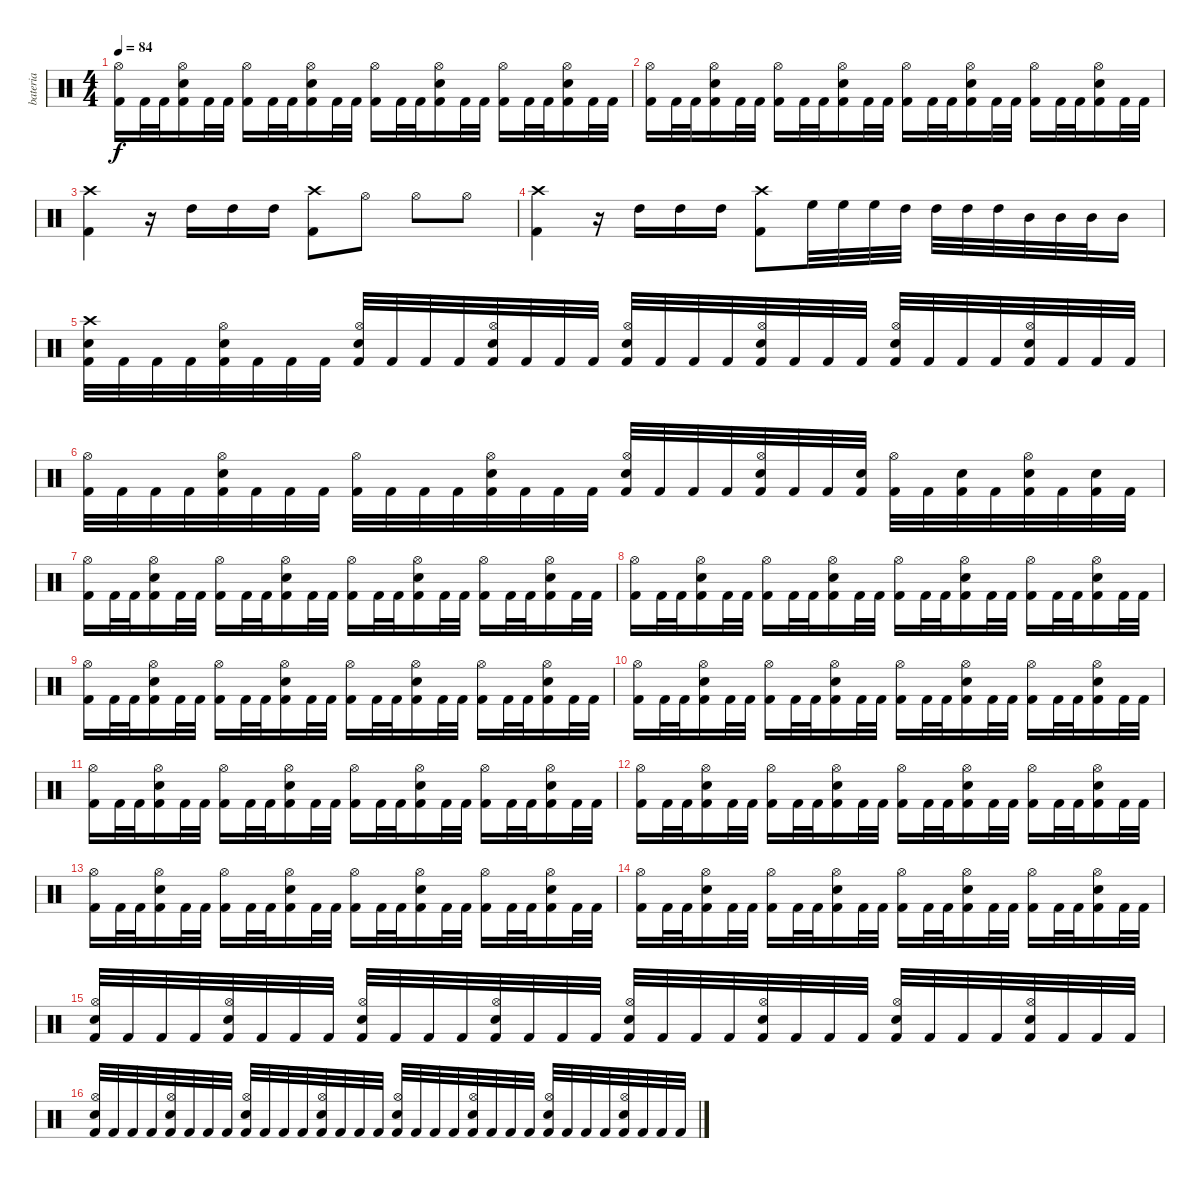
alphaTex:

\track ("bateria" "bateria") {instrument percussion}
\staff {score}
\articulation defaults
\ts (4 4)
\tempo 84
\clef neutral
\ks c
("Kick (hit) 2" "Hi-Hat (open)").16{dy f} "Kick (hit) 2".32 "Kick (hit) 2".32 ("Kick (hit) 2" "Electric Snare (hit)" "Hi-Hat (open)").16 "Kick (hit) 2".32 "Kick (hit) 2".32 ("Kick (hit) 2" "Hi-Hat (open)").16 "Kick (hit) 2".32 "Kick (hit) 2".32 ("Kick (hit) 2" "Electric Snare (hit)" "Hi-Hat (open)").16 "Kick (hit) 2".32 "Kick (hit) 2".32 ("Kick (hit) 2" "Hi-Hat (open)").16 "Kick (hit) 2".32 "Kick (hit) 2".32 ("Kick (hit) 2" "Electric Snare (hit)" "Hi-Hat (open)").16 "Kick (hit) 2".32 "Kick (hit) 2".32 ("Kick (hit) 2" "Hi-Hat (open)").16 "Kick (hit) 2".32 "Kick (hit) 2".32 ("Kick (hit) 2" "Electric Snare (hit)" "Hi-Hat (open)").16 "Kick (hit) 2".32 "Kick (hit) 2".32 |
("Kick (hit) 2" "Hi-Hat (open)").16 "Kick (hit) 2".32 "Kick (hit) 2".32 ("Kick (hit) 2" "Electric Snare (hit)" "Hi-Hat (open)").16 "Kick (hit) 2".32 "Kick (hit) 2".32 ("Kick (hit) 2" "Hi-Hat (open)").16 "Kick (hit) 2".32 "Kick (hit) 2".32 ("Kick (hit) 2" "Electric Snare (hit)" "Hi-Hat (open)").16 "Kick (hit) 2".32 "Kick (hit) 2".32 ("Kick (hit) 2" "Hi-Hat (open)").16 "Kick (hit) 2".32 "Kick (hit) 2".32 ("Kick (hit) 2" "Electric Snare (hit)" "Hi-Hat (open)").16 "Kick (hit) 2".32 "Kick (hit) 2".32 ("Kick (hit) 2" "Hi-Hat (open)").16 "Kick (hit) 2".32 "Kick (hit) 2".32 ("Kick (hit) 2" "Electric Snare (hit)" "Hi-Hat (open)").16 "Kick (hit) 2".32 "Kick (hit) 2".32 |
("Kick (hit) 2" "Crash high (hit)").4 r.16 "High Tom (hit)".16 "High Tom (hit)".16 "High Tom (hit)".16 ("Kick (hit) 2" "Crash high (hit)").8 "Hi-Hat (open)".8 "Hi-Hat (open)".8 "Hi-Hat (open)".8 |
("Kick (hit) 2" "Crash high (hit)").4 r.16 "High Tom (hit)".16 "High Tom (hit)".16 "High Tom (hit)".16 ("Kick (hit) 2" "Crash high (hit)").8 "High Floor Tom (hit)".32 "High Floor Tom (hit)".32 "High Floor Tom (hit)".32 "High Tom (hit)".32 "High Tom (hit)".32 "High Tom (hit)".32 "High Tom (hit)".32 "Mid Tom (hit)".32 "Mid Tom (hit)".32 "Mid Tom (hit)".32 "Mid Tom (hit)".16 |
("Kick (hit) 2" "Electric Snare (hit)" "Crash high (hit)").32 "Kick (hit) 2".32 "Kick (hit) 2".32 "Kick (hit) 2".32 ("Kick (hit) 2" "Electric Snare (hit)" "Hi-Hat (open)").32 "Kick (hit) 2".32 "Kick (hit) 2".32 "Kick (hit) 2".32 ("Kick (hit) 2" "Electric Snare (hit)" "Hi-Hat (open)").32 "Kick (hit) 2".32 "Kick (hit) 2".32 "Kick (hit) 2".32 ("Kick (hit) 2" "Electric Snare (hit)" "Hi-Hat (open)").32 "Kick (hit) 2".32 "Kick (hit) 2".32 "Kick (hit) 2".32 ("Kick (hit) 2" "Electric Snare (hit)" "Hi-Hat (open)").32 "Kick (hit) 2".32 "Kick (hit) 2".32 "Kick (hit) 2".32 ("Kick (hit) 2" "Electric Snare (hit)" "Hi-Hat (open)").32 "Kick (hit) 2".32 "Kick (hit) 2".32 "Kick (hit) 2".32 ("Kick (hit) 2" "Electric Snare (hit)" "Hi-Hat (open)").32 "Kick (hit) 2".32 "Kick (hit) 2".32 "Kick (hit) 2".32 ("Kick (hit) 2" "Electric Snare (hit)" "Hi-Hat (open)").32 "Kick (hit) 2".32 "Kick (hit) 2".32 "Kick (hit) 2".32 |
("Kick (hit) 2" "Hi-Hat (open)").32 "Kick (hit) 2".32 "Kick (hit) 2".32 "Kick (hit) 2".32 ("Kick (hit) 2" "Electric Snare (hit)" "Hi-Hat (open)").32 "Kick (hit) 2".32 "Kick (hit) 2".32 "Kick (hit) 2".32 ("Kick (hit) 2" "Hi-Hat (open)").32 "Kick (hit) 2".32 "Kick (hit) 2".32 "Kick (hit) 2".32 ("Kick (hit) 2" "Electric Snare (hit)" "Hi-Hat (open)").32 "Kick (hit) 2".32 "Kick (hit) 2".32 "Kick (hit) 2".32 ("Kick (hit) 2" "Electric Snare (hit)" "Hi-Hat (open)").32 "Kick (hit) 2".32 "Kick (hit) 2".32 "Kick (hit) 2".32 ("Kick (hit) 2" "Electric Snare (hit)" "Hi-Hat (open)").32 "Kick (hit) 2".32 "Kick (hit) 2".32 ("Kick (hit) 2" "Electric Snare (hit)").32 ("Kick (hit) 2" "Hi-Hat (open)").32 "Kick (hit) 2".32 ("Kick (hit) 2" "Electric Snare (hit)").32 "Kick (hit) 2".32 ("Kick (hit) 2" "Electric Snare (hit)" "Hi-Hat (open)").32 "Kick (hit) 2".32 ("Kick (hit) 2" "Electric Snare (hit)").32 "Kick (hit) 2".32 |
("Kick (hit) 2" "Hi-Hat (open)").16 "Kick (hit) 2".32 "Kick (hit) 2".32 ("Kick (hit) 2" "Electric Snare (hit)" "Hi-Hat (open)").16 "Kick (hit) 2".32 "Kick (hit) 2".32 ("Kick (hit) 2" "Hi-Hat (open)").16 "Kick (hit) 2".32 "Kick (hit) 2".32 ("Kick (hit) 2" "Electric Snare (hit)" "Hi-Hat (open)").16 "Kick (hit) 2".32 "Kick (hit) 2".32 ("Kick (hit) 2" "Hi-Hat (open)").16 "Kick (hit) 2".32 "Kick (hit) 2".32 ("Kick (hit) 2" "Electric Snare (hit)" "Hi-Hat (open)").16 "Kick (hit) 2".32 "Kick (hit) 2".32 ("Kick (hit) 2" "Hi-Hat (open)").16 "Kick (hit) 2".32 "Kick (hit) 2".32 ("Kick (hit) 2" "Electric Snare (hit)" "Hi-Hat (open)").16 "Kick (hit) 2".32 "Kick (hit) 2".32 |
("Kick (hit) 2" "Hi-Hat (open)").16 "Kick (hit) 2".32 "Kick (hit) 2".32 ("Kick (hit) 2" "Electric Snare (hit)" "Hi-Hat (open)").16 "Kick (hit) 2".32 "Kick (hit) 2".32 ("Kick (hit) 2" "Hi-Hat (open)").16 "Kick (hit) 2".32 "Kick (hit) 2".32 ("Kick (hit) 2" "Electric Snare (hit)" "Hi-Hat (open)").16 "Kick (hit) 2".32 "Kick (hit) 2".32 ("Kick (hit) 2" "Hi-Hat (open)").16 "Kick (hit) 2".32 "Kick (hit) 2".32 ("Kick (hit) 2" "Electric Snare (hit)" "Hi-Hat (open)").16 "Kick (hit) 2".32 "Kick (hit) 2".32 ("Kick (hit) 2" "Hi-Hat (open)").16 "Kick (hit) 2".32 "Kick (hit) 2".32 ("Kick (hit) 2" "Electric Snare (hit)" "Hi-Hat (open)").16 "Kick (hit) 2".32 "Kick (hit) 2".32 |
("Kick (hit) 2" "Hi-Hat (open)").16 "Kick (hit) 2".32 "Kick (hit) 2".32 ("Kick (hit) 2" "Electric Snare (hit)" "Hi-Hat (open)").16 "Kick (hit) 2".32 "Kick (hit) 2".32 ("Kick (hit) 2" "Hi-Hat (open)").16 "Kick (hit) 2".32 "Kick (hit) 2".32 ("Kick (hit) 2" "Electric Snare (hit)" "Hi-Hat (open)").16 "Kick (hit) 2".32 "Kick (hit) 2".32 ("Kick (hit) 2" "Hi-Hat (open)").16 "Kick (hit) 2".32 "Kick (hit) 2".32 ("Kick (hit) 2" "Electric Snare (hit)" "Hi-Hat (open)").16 "Kick (hit) 2".32 "Kick (hit) 2".32 ("Kick (hit) 2" "Hi-Hat (open)").16 "Kick (hit) 2".32 "Kick (hit) 2".32 ("Kick (hit) 2" "Electric Snare (hit)" "Hi-Hat (open)").16 "Kick (hit) 2".32 "Kick (hit) 2".32 |
("Kick (hit) 2" "Hi-Hat (open)").16 "Kick (hit) 2".32 "Kick (hit) 2".32 ("Kick (hit) 2" "Electric Snare (hit)" "Hi-Hat (open)").16 "Kick (hit) 2".32 "Kick (hit) 2".32 ("Kick (hit) 2" "Hi-Hat (open)").16 "Kick (hit) 2".32 "Kick (hit) 2".32 ("Kick (hit) 2" "Electric Snare (hit)" "Hi-Hat (open)").16 "Kick (hit) 2".32 "Kick (hit) 2".32 ("Kick (hit) 2" "Hi-Hat (open)").16 "Kick (hit) 2".32 "Kick (hit) 2".32 ("Kick (hit) 2" "Electric Snare (hit)" "Hi-Hat (open)").16 "Kick (hit) 2".32 "Kick (hit) 2".32 ("Kick (hit) 2" "Hi-Hat (open)").16 "Kick (hit) 2".32 "Kick (hit) 2".32 ("Kick (hit) 2" "Electric Snare (hit)" "Hi-Hat (open)").16 "Kick (hit) 2".32 "Kick (hit) 2".32 |
("Kick (hit) 2" "Hi-Hat (open)").16 "Kick (hit) 2".32 "Kick (hit) 2".32 ("Kick (hit) 2" "Electric Snare (hit)" "Hi-Hat (open)").16 "Kick (hit) 2".32 "Kick (hit) 2".32 ("Kick (hit) 2" "Hi-Hat (open)").16 "Kick (hit) 2".32 "Kick (hit) 2".32 ("Kick (hit) 2" "Electric Snare (hit)" "Hi-Hat (open)").16 "Kick (hit) 2".32 "Kick (hit) 2".32 ("Kick (hit) 2" "Hi-Hat (open)").16 "Kick (hit) 2".32 "Kick (hit) 2".32 ("Kick (hit) 2" "Electric Snare (hit)" "Hi-Hat (open)").16 "Kick (hit) 2".32 "Kick (hit) 2".32 ("Kick (hit) 2" "Hi-Hat (open)").16 "Kick (hit) 2".32 "Kick (hit) 2".32 ("Kick (hit) 2" "Electric Snare (hit)" "Hi-Hat (open)").16 "Kick (hit) 2".32 "Kick (hit) 2".32 |
("Kick (hit) 2" "Hi-Hat (open)").16 "Kick (hit) 2".32 "Kick (hit) 2".32 ("Kick (hit) 2" "Electric Snare (hit)" "Hi-Hat (open)").16 "Kick (hit) 2".32 "Kick (hit) 2".32 ("Kick (hit) 2" "Hi-Hat (open)").16 "Kick (hit) 2".32 "Kick (hit) 2".32 ("Kick (hit) 2" "Electric Snare (hit)" "Hi-Hat (open)").16 "Kick (hit) 2".32 "Kick (hit) 2".32 ("Kick (hit) 2" "Hi-Hat (open)").16 "Kick (hit) 2".32 "Kick (hit) 2".32 ("Kick (hit) 2" "Electric Snare (hit)" "Hi-Hat (open)").16 "Kick (hit) 2".32 "Kick (hit) 2".32 ("Kick (hit) 2" "Hi-Hat (open)").16 "Kick (hit) 2".32 "Kick (hit) 2".32 ("Kick (hit) 2" "Electric Snare (hit)" "Hi-Hat (open)").16 "Kick (hit) 2".32 "Kick (hit) 2".32 |
("Kick (hit) 2" "Hi-Hat (open)").16 "Kick (hit) 2".32 "Kick (hit) 2".32 ("Kick (hit) 2" "Electric Snare (hit)" "Hi-Hat (open)").16 "Kick (hit) 2".32 "Kick (hit) 2".32 ("Kick (hit) 2" "Hi-Hat (open)").16 "Kick (hit) 2".32 "Kick (hit) 2".32 ("Kick (hit) 2" "Electric Snare (hit)" "Hi-Hat (open)").16 "Kick (hit) 2".32 "Kick (hit) 2".32 ("Kick (hit) 2" "Hi-Hat (open)").16 "Kick (hit) 2".32 "Kick (hit) 2".32 ("Kick (hit) 2" "Electric Snare (hit)" "Hi-Hat (open)").16 "Kick (hit) 2".32 "Kick (hit) 2".32 ("Kick (hit) 2" "Hi-Hat (open)").16 "Kick (hit) 2".32 "Kick (hit) 2".32 ("Kick (hit) 2" "Electric Snare (hit)" "Hi-Hat (open)").16 "Kick (hit) 2".32 "Kick (hit) 2".32 |
("Kick (hit) 2" "Hi-Hat (open)").16 "Kick (hit) 2".32 "Kick (hit) 2".32 ("Kick (hit) 2" "Electric Snare (hit)" "Hi-Hat (open)").16 "Kick (hit) 2".32 "Kick (hit) 2".32 ("Kick (hit) 2" "Hi-Hat (open)").16 "Kick (hit) 2".32 "Kick (hit) 2".32 ("Kick (hit) 2" "Electric Snare (hit)" "Hi-Hat (open)").16 "Kick (hit) 2".32 "Kick (hit) 2".32 ("Kick (hit) 2" "Hi-Hat (open)").16 "Kick (hit) 2".32 "Kick (hit) 2".32 ("Kick (hit) 2" "Electric Snare (hit)" "Hi-Hat (open)").16 "Kick (hit) 2".32 "Kick (hit) 2".32 ("Kick (hit) 2" "Hi-Hat (open)").16 "Kick (hit) 2".32 "Kick (hit) 2".32 ("Kick (hit) 2" "Electric Snare (hit)" "Hi-Hat (open)").16 "Kick (hit) 2".32 "Kick (hit) 2".32 |
("Kick (hit) 2" "Electric Snare (hit)" "Hi-Hat (open)").32 "Kick (hit) 2".32 "Kick (hit) 2".32 "Kick (hit) 2".32 ("Kick (hit) 2" "Electric Snare (hit)" "Hi-Hat (open)").32 "Kick (hit) 2".32 "Kick (hit) 2".32 "Kick (hit) 2".32 ("Kick (hit) 2" "Electric Snare (hit)" "Hi-Hat (open)").32 "Kick (hit) 2".32 "Kick (hit) 2".32 "Kick (hit) 2".32 ("Kick (hit) 2" "Electric Snare (hit)" "Hi-Hat (open)").32 "Kick (hit) 2".32 "Kick (hit) 2".32 "Kick (hit) 2".32 ("Kick (hit) 2" "Electric Snare (hit)" "Hi-Hat (open)").32 "Kick (hit) 2".32 "Kick (hit) 2".32 "Kick (hit) 2".32 ("Kick (hit) 2" "Electric Snare (hit)" "Hi-Hat (open)").32 "Kick (hit) 2".32 "Kick (hit) 2".32 "Kick (hit) 2".32 ("Kick (hit) 2" "Electric Snare (hit)" "Hi-Hat (open)").32 "Kick (hit) 2".32 "Kick (hit) 2".32 "Kick (hit) 2".32 ("Kick (hit) 2" "Electric Snare (hit)" "Hi-Hat (open)").32 "Kick (hit) 2".32 "Kick (hit) 2".32 "Kick (hit) 2".32 |
("Kick (hit) 2" "Electric Snare (hit)" "Hi-Hat (open)").32 "Kick (hit) 2".32 "Kick (hit) 2".32 "Kick (hit) 2".32 ("Kick (hit) 2" "Electric Snare (hit)" "Hi-Hat (open)").32 "Kick (hit) 2".32 "Kick (hit) 2".32 "Kick (hit) 2".32 ("Kick (hit) 2" "Electric Snare (hit)" "Hi-Hat (open)").32 "Kick (hit) 2".32 "Kick (hit) 2".32 "Kick (hit) 2".32 ("Kick (hit) 2" "Electric Snare (hit)" "Hi-Hat (open)").32 "Kick (hit) 2".32 "Kick (hit) 2".32 "Kick (hit) 2".32 ("Kick (hit) 2" "Electric Snare (hit)" "Hi-Hat (open)").32 "Kick (hit) 2".32 "Kick (hit) 2".32 "Kick (hit) 2".32 ("Kick (hit) 2" "Electric Snare (hit)" "Hi-Hat (open)").32 "Kick (hit) 2".32 "Kick (hit) 2".32 "Kick (hit) 2".32 ("Kick (hit) 2" "Electric Snare (hit)" "Hi-Hat (open)").32 "Kick (hit) 2".32 "Kick (hit) 2".32 "Kick (hit) 2".32 ("Kick (hit) 2" "Electric Snare (hit)" "Hi-Hat (open)").32 "Kick (hit) 2".32 "Kick (hit) 2".32 "Kick (hit) 2".32
